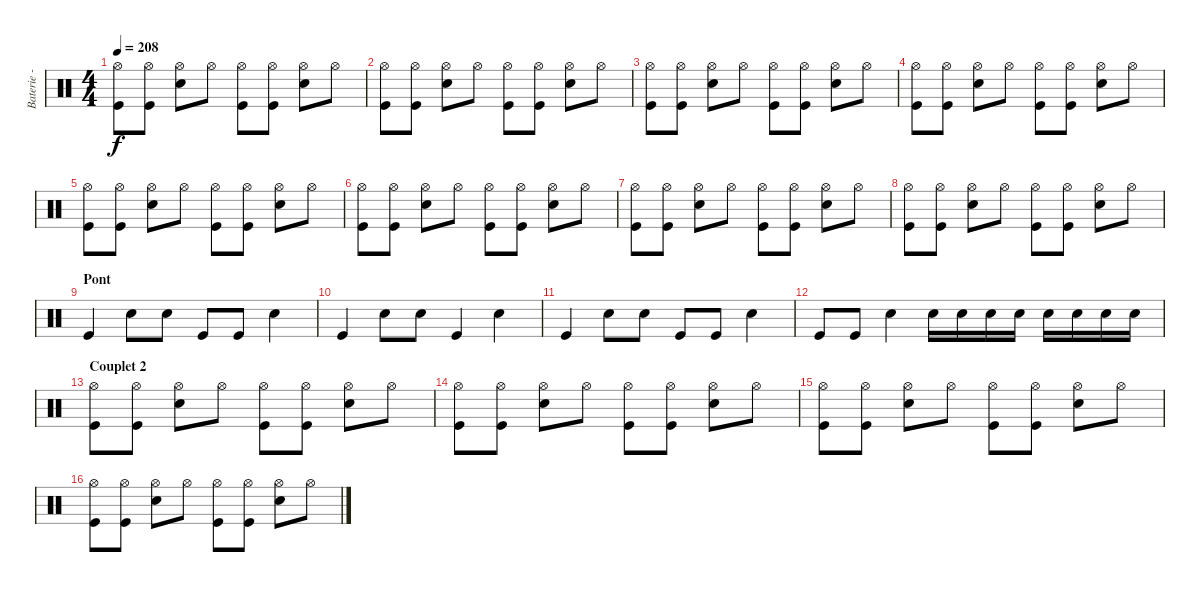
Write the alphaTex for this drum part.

\track ("Baterie - Guillaume" "Baterie - ") {instrument percussion}
\staff {score}
\articulation defaults
\ts (4 4)
\tempo 208
\clef neutral
\ks c
("Hi-Hat (open)" "Kick (hit)").8{dy f} ("Hi-Hat (open)" "Kick (hit)").8 ("Hi-Hat (open)" "Electric Snare (hit)").8 "Hi-Hat (open)".8 ("Hi-Hat (open)" "Kick (hit)").8 ("Hi-Hat (open)" "Kick (hit)").8 ("Hi-Hat (open)" "Electric Snare (hit)").8 "Hi-Hat (open)".8 |
("Hi-Hat (open)" "Kick (hit)").8 ("Hi-Hat (open)" "Kick (hit)").8 ("Hi-Hat (open)" "Electric Snare (hit)").8 "Hi-Hat (open)".8 ("Hi-Hat (open)" "Kick (hit)").8 ("Hi-Hat (open)" "Kick (hit)").8 ("Hi-Hat (open)" "Electric Snare (hit)").8 "Hi-Hat (open)".8 |
("Hi-Hat (open)" "Kick (hit)").8 ("Hi-Hat (open)" "Kick (hit)").8 ("Hi-Hat (open)" "Electric Snare (hit)").8 "Hi-Hat (open)".8 ("Hi-Hat (open)" "Kick (hit)").8 ("Hi-Hat (open)" "Kick (hit)").8 ("Hi-Hat (open)" "Electric Snare (hit)").8 "Hi-Hat (open)".8 |
("Hi-Hat (open)" "Kick (hit)").8 ("Hi-Hat (open)" "Kick (hit)").8 ("Hi-Hat (open)" "Electric Snare (hit)").8 "Hi-Hat (open)".8 ("Hi-Hat (open)" "Kick (hit)").8 ("Hi-Hat (open)" "Kick (hit)").8 ("Hi-Hat (open)" "Electric Snare (hit)").8 "Hi-Hat (open)".8 |
("Hi-Hat (open)" "Kick (hit)").8 ("Hi-Hat (open)" "Kick (hit)").8 ("Hi-Hat (open)" "Electric Snare (hit)").8 "Hi-Hat (open)".8 ("Hi-Hat (open)" "Kick (hit)").8 ("Hi-Hat (open)" "Kick (hit)").8 ("Hi-Hat (open)" "Electric Snare (hit)").8 "Hi-Hat (open)".8 |
("Hi-Hat (open)" "Kick (hit)").8 ("Hi-Hat (open)" "Kick (hit)").8 ("Hi-Hat (open)" "Electric Snare (hit)").8 "Hi-Hat (open)".8 ("Hi-Hat (open)" "Kick (hit)").8 ("Hi-Hat (open)" "Kick (hit)").8 ("Hi-Hat (open)" "Electric Snare (hit)").8 "Hi-Hat (open)".8 |
("Hi-Hat (open)" "Kick (hit)").8 ("Hi-Hat (open)" "Kick (hit)").8 ("Hi-Hat (open)" "Electric Snare (hit)").8 "Hi-Hat (open)".8 ("Hi-Hat (open)" "Kick (hit)").8 ("Hi-Hat (open)" "Kick (hit)").8 ("Hi-Hat (open)" "Electric Snare (hit)").8 "Hi-Hat (open)".8 |
("Hi-Hat (open)" "Kick (hit)").8 ("Hi-Hat (open)" "Kick (hit)").8 ("Hi-Hat (open)" "Electric Snare (hit)").8 "Hi-Hat (open)".8 ("Hi-Hat (open)" "Kick (hit)").8 ("Hi-Hat (open)" "Kick (hit)").8 ("Hi-Hat (open)" "Electric Snare (hit)").8 "Hi-Hat (open)".8 |
\section ("" "Pont")
"Kick (hit)".4 "Electric Snare (hit)".8 "Electric Snare (hit)".8 "Kick (hit)".8 "Kick (hit)".8 "Electric Snare (hit)".4 |
"Kick (hit)".4 "Electric Snare (hit)".8 "Electric Snare (hit)".8 "Kick (hit)".4 "Electric Snare (hit)".4 |
"Kick (hit)".4 "Electric Snare (hit)".8 "Electric Snare (hit)".8 "Kick (hit)".8 "Kick (hit)".8 "Electric Snare (hit)".4 |
"Kick (hit)".8 "Kick (hit)".8 "Electric Snare (hit)".4 "Electric Snare (hit)".16 "Electric Snare (hit)".16 "Electric Snare (hit)".16 "Electric Snare (hit)".16 "Electric Snare (hit)".16 "Electric Snare (hit)".16 "Electric Snare (hit)".16 "Electric Snare (hit)".16 |
\section ("" "Couplet 2")
("Hi-Hat (open)" "Kick (hit)").8 ("Hi-Hat (open)" "Kick (hit)").8 ("Hi-Hat (open)" "Electric Snare (hit)").8 "Hi-Hat (open)".8 ("Hi-Hat (open)" "Kick (hit)").8 ("Hi-Hat (open)" "Kick (hit)").8 ("Hi-Hat (open)" "Electric Snare (hit)").8 "Hi-Hat (open)".8 |
("Hi-Hat (open)" "Kick (hit)").8 ("Hi-Hat (open)" "Kick (hit)").8 ("Hi-Hat (open)" "Electric Snare (hit)").8 "Hi-Hat (open)".8 ("Hi-Hat (open)" "Kick (hit)").8 ("Hi-Hat (open)" "Kick (hit)").8 ("Hi-Hat (open)" "Electric Snare (hit)").8 "Hi-Hat (open)".8 |
("Hi-Hat (open)" "Kick (hit)").8 ("Hi-Hat (open)" "Kick (hit)").8 ("Hi-Hat (open)" "Electric Snare (hit)").8 "Hi-Hat (open)".8 ("Hi-Hat (open)" "Kick (hit)").8 ("Hi-Hat (open)" "Kick (hit)").8 ("Hi-Hat (open)" "Electric Snare (hit)").8 "Hi-Hat (open)".8 |
("Hi-Hat (open)" "Kick (hit)").8 ("Hi-Hat (open)" "Kick (hit)").8 ("Hi-Hat (open)" "Electric Snare (hit)").8 "Hi-Hat (open)".8 ("Hi-Hat (open)" "Kick (hit)").8 ("Hi-Hat (open)" "Kick (hit)").8 ("Hi-Hat (open)" "Electric Snare (hit)").8 "Hi-Hat (open)".8
